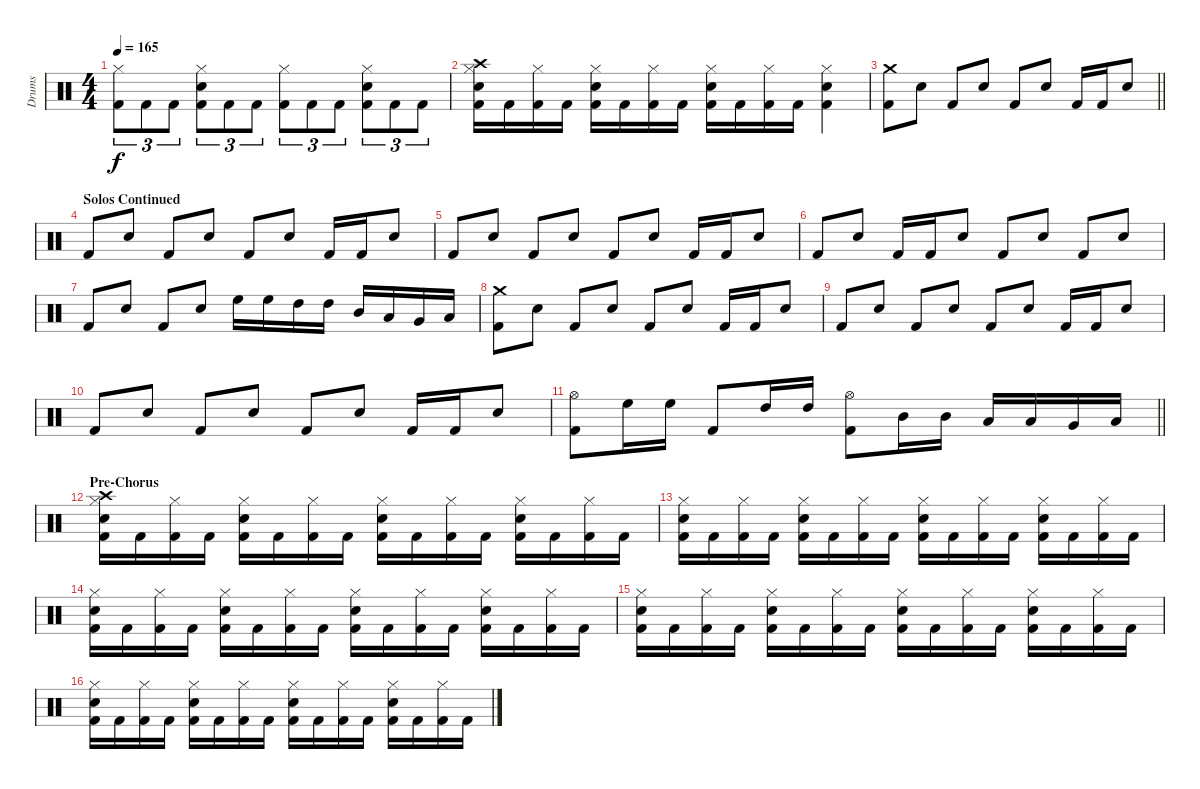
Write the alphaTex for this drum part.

\track ("Drums" "Drums") {instrument percussion}
\staff {score}
\articulation defaults
\ts (4 4)
\tempo 165
\clef neutral
\ks c
("Hi-Hat (closed)" "Kick (hit) 2").8{tu (3 2) dy f} "Kick (hit) 2".8{tu (3 2)} "Kick (hit) 2".8{tu (3 2)} ("Hi-Hat (closed)" "Snare (hit) 2" "Kick (hit) 2").8{tu (3 2)} "Kick (hit) 2".8{tu (3 2)} "Kick (hit) 2".8{tu (3 2)} ("Hi-Hat (closed)" "Kick (hit) 2").8{tu (3 2)} "Kick (hit) 2".8{tu (3 2)} "Kick (hit) 2".8{tu (3 2)} ("Hi-Hat (closed)" "Snare (hit) 2" "Kick (hit) 2").8{tu (3 2)} "Kick (hit) 2".8{tu (3 2)} "Kick (hit) 2".8{tu (3 2)} |
("Hi-Hat (closed)" "Snare (hit) 2" "Crash high (hit)" "Kick (hit) 2").16 "Kick (hit) 2".16 ("Hi-Hat (closed)" "Kick (hit) 2").16 "Kick (hit) 2".16 ("Hi-Hat (closed)" "Snare (hit) 2" "Kick (hit) 2").16 "Kick (hit) 2".16 ("Hi-Hat (closed)" "Kick (hit) 2").16 "Kick (hit) 2".16 ("Hi-Hat (closed)" "Snare (hit) 2" "Kick (hit) 2").16 "Kick (hit) 2".16 ("Hi-Hat (closed)" "Kick (hit) 2").16 "Kick (hit) 2".16 ("Hi-Hat (closed)" "Snare (hit) 2" "Kick (hit) 2").4 |
\barLineRight lightlight
("Crash medium (hit)" "Kick (hit) 2").8 "Snare (hit) 2".8 "Kick (hit) 2".8 "Snare (hit) 2".8 "Kick (hit) 2".8 "Snare (hit) 2".8 "Kick (hit) 2".16 "Kick (hit) 2".16 "Snare (hit) 2".8 |
\section ("" "Solos Continued")
"Kick (hit) 2".8 "Snare (hit) 2".8 "Kick (hit) 2".8 "Snare (hit) 2".8 "Kick (hit) 2".8 "Snare (hit) 2".8 "Kick (hit) 2".16 "Kick (hit) 2".16 "Snare (hit) 2".8 |
"Kick (hit) 2".8 "Snare (hit) 2".8 "Kick (hit) 2".8 "Snare (hit) 2".8 "Kick (hit) 2".8 "Snare (hit) 2".8 "Kick (hit) 2".16 "Kick (hit) 2".16 "Snare (hit) 2".8 |
"Kick (hit) 2".8 "Snare (hit) 2".8 "Kick (hit) 2".16 "Kick (hit) 2".16 "Snare (hit) 2".8 "Kick (hit) 2".8 "Snare (hit) 2".8 "Kick (hit) 2".8 "Snare (hit) 2".8 |
"Kick (hit) 2".8 "Snare (hit) 2".8 "Kick (hit) 2".8 "Snare (hit) 2".8 "High Floor Tom (hit)".16 "High Floor Tom (hit)".16 "High Tom (hit)".16 "High Tom (hit)".16 "Mid Tom (hit)".16 "Low Tom (hit)".16 "Very Low Tom (hit)".16 "Low Floor Tom (hit)".16 |
("Crash medium (hit)" "Kick (hit) 2").8 "Snare (hit) 2".8 "Kick (hit) 2".8 "Snare (hit) 2".8 "Kick (hit) 2".8 "Snare (hit) 2".8 "Kick (hit) 2".16 "Kick (hit) 2".16 "Snare (hit) 2".8 |
"Kick (hit) 2".8 "Snare (hit) 2".8 "Kick (hit) 2".8 "Snare (hit) 2".8 "Kick (hit) 2".8 "Snare (hit) 2".8 "Kick (hit) 2".16 "Kick (hit) 2".16 "Snare (hit) 2".8 |
"Kick (hit) 2".8 "Snare (hit) 2".8 "Kick (hit) 2".8 "Snare (hit) 2".8 "Kick (hit) 2".8 "Snare (hit) 2".8 "Kick (hit) 2".16 "Kick (hit) 2".16 "Snare (hit) 2".8 |
\barLineRight lightlight
("Hi-Hat (open)" "Kick (hit) 2").8 "High Floor Tom (hit)".16 "High Floor Tom (hit)".16 "Kick (hit) 2".8 "High Tom (hit)".16 "High Tom (hit)".16 ("Hi-Hat (open)" "Kick (hit) 2").8 "Mid Tom (hit)".16 "Mid Tom (hit)".16 "Low Tom (hit)".16 "Low Tom (hit)".16 "Very Low Tom (hit)".16 "Low Floor Tom (hit)".16 |
\section ("" "Pre-Chorus")
("Hi-Hat (closed)" "Snare (hit) 2" "Crash high (hit)" "Kick (hit) 2").16 "Kick (hit) 2".16 ("Hi-Hat (closed)" "Kick (hit) 2").16 "Kick (hit) 2".16 ("Hi-Hat (closed)" "Snare (hit) 2" "Kick (hit) 2").16 "Kick (hit) 2".16 ("Hi-Hat (closed)" "Kick (hit) 2").16 "Kick (hit) 2".16 ("Hi-Hat (closed)" "Snare (hit) 2" "Kick (hit) 2").16 "Kick (hit) 2".16 ("Hi-Hat (closed)" "Kick (hit) 2").16 "Kick (hit) 2".16 ("Hi-Hat (closed)" "Snare (hit) 2" "Kick (hit) 2").16 "Kick (hit) 2".16 ("Hi-Hat (closed)" "Kick (hit) 2").16 "Kick (hit) 2".16 |
("Hi-Hat (closed)" "Snare (hit) 2" "Kick (hit) 2").16 "Kick (hit) 2".16 ("Hi-Hat (closed)" "Kick (hit) 2").16 "Kick (hit) 2".16 ("Hi-Hat (closed)" "Snare (hit) 2" "Kick (hit) 2").16 "Kick (hit) 2".16 ("Hi-Hat (closed)" "Kick (hit) 2").16 "Kick (hit) 2".16 ("Hi-Hat (closed)" "Snare (hit) 2" "Kick (hit) 2").16 "Kick (hit) 2".16 ("Hi-Hat (closed)" "Kick (hit) 2").16 "Kick (hit) 2".16 ("Hi-Hat (closed)" "Snare (hit) 2" "Kick (hit) 2").16 "Kick (hit) 2".16 ("Hi-Hat (closed)" "Kick (hit) 2").16 "Kick (hit) 2".16 |
("Hi-Hat (closed)" "Snare (hit) 2" "Kick (hit) 2").16 "Kick (hit) 2".16 ("Hi-Hat (closed)" "Kick (hit) 2").16 "Kick (hit) 2".16 ("Hi-Hat (closed)" "Snare (hit) 2" "Kick (hit) 2").16 "Kick (hit) 2".16 ("Hi-Hat (closed)" "Kick (hit) 2").16 "Kick (hit) 2".16 ("Hi-Hat (closed)" "Snare (hit) 2" "Kick (hit) 2").16 "Kick (hit) 2".16 ("Hi-Hat (closed)" "Kick (hit) 2").16 "Kick (hit) 2".16 ("Hi-Hat (closed)" "Snare (hit) 2" "Kick (hit) 2").16 "Kick (hit) 2".16 ("Hi-Hat (closed)" "Kick (hit) 2").16 "Kick (hit) 2".16 |
("Hi-Hat (closed)" "Snare (hit) 2" "Kick (hit) 2").16 "Kick (hit) 2".16 ("Hi-Hat (closed)" "Kick (hit) 2").16 "Kick (hit) 2".16 ("Hi-Hat (closed)" "Snare (hit) 2" "Kick (hit) 2").16 "Kick (hit) 2".16 ("Hi-Hat (closed)" "Kick (hit) 2").16 "Kick (hit) 2".16 ("Hi-Hat (closed)" "Snare (hit) 2" "Kick (hit) 2").16 "Kick (hit) 2".16 ("Hi-Hat (closed)" "Kick (hit) 2").16 "Kick (hit) 2".16 ("Hi-Hat (closed)" "Snare (hit) 2" "Kick (hit) 2").16 "Kick (hit) 2".16 ("Hi-Hat (closed)" "Kick (hit) 2").16 "Kick (hit) 2".16 |
("Hi-Hat (closed)" "Snare (hit) 2" "Kick (hit) 2").16 "Kick (hit) 2".16 ("Hi-Hat (closed)" "Kick (hit) 2").16 "Kick (hit) 2".16 ("Hi-Hat (closed)" "Snare (hit) 2" "Kick (hit) 2").16 "Kick (hit) 2".16 ("Hi-Hat (closed)" "Kick (hit) 2").16 "Kick (hit) 2".16 ("Hi-Hat (closed)" "Snare (hit) 2" "Kick (hit) 2").16 "Kick (hit) 2".16 ("Hi-Hat (closed)" "Kick (hit) 2").16 "Kick (hit) 2".16 ("Hi-Hat (closed)" "Snare (hit) 2" "Kick (hit) 2").16 "Kick (hit) 2".16 ("Hi-Hat (closed)" "Kick (hit) 2").16 "Kick (hit) 2".16
